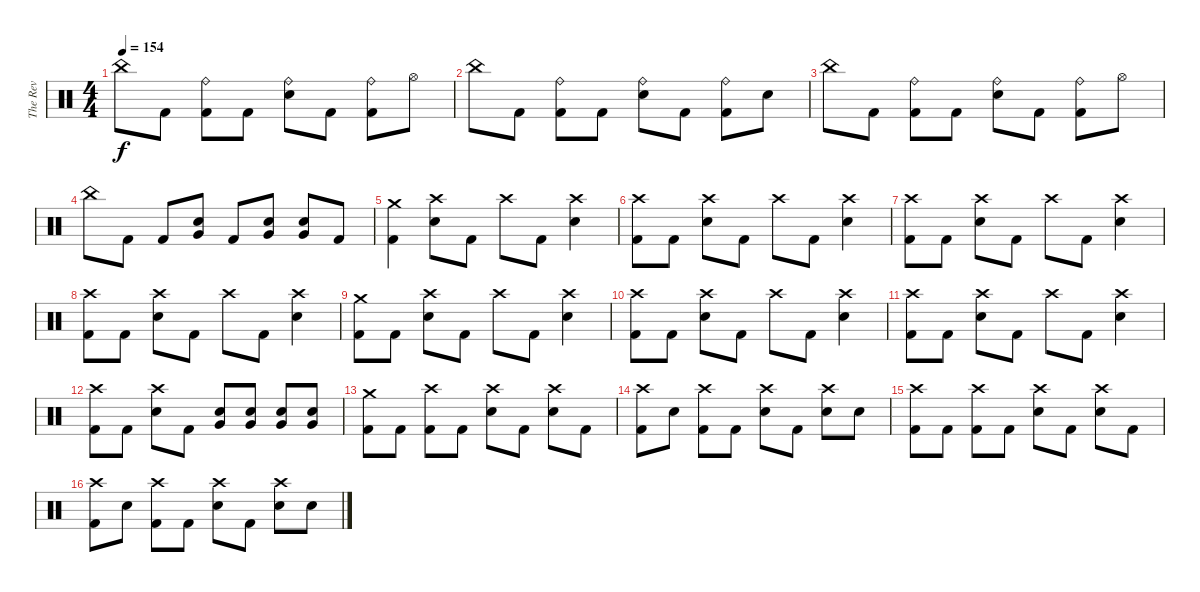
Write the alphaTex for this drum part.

\track ("The Rev" "The Rev") {instrument percussion}
\staff {score}
\articulation defaults
\ts (4 4)
\tempo 154
\clef neutral
\ks c "China (hit)".8{dy f} "Kick (hit) 2".8
("Ride (bell)" "Kick (hit) 2").8 "Kick (hit) 2".8 ("Ride (bell)" "Snare (hit) 2").8 "Kick (hit) 2".8 ("Ride (bell)" "Kick (hit) 2").8 "Hi-Hat (open)".8 |
"China (hit)".8 "Kick (hit) 2".8 ("Ride (bell)" "Kick (hit) 2").8 "Kick (hit) 2".8 ("Ride (bell)" "Snare (hit) 2").8 "Kick (hit) 2".8 ("Ride (bell)" "Kick (hit) 2").8 "Snare (hit) 2".8 |
"China (hit)".8 "Kick (hit) 2".8 ("Ride (bell)" "Kick (hit) 2").8 "Kick (hit) 2".8 ("Ride (bell)" "Snare (hit) 2").8 "Kick (hit) 2".8 ("Ride (bell)" "Kick (hit) 2").8 "Hi-Hat (open)".8 |
"China (hit)".8 "Kick (hit) 2".8 "Kick (hit) 2".8 ("Snare (hit) 2" "Very Low Tom (hit)").8 "Kick (hit) 2".8 ("Snare (hit) 2" "Very Low Tom (hit)").8 ("Snare (hit) 2" "Very Low Tom (hit)").8 "Kick (hit) 2".8 |
("Crash medium (hit)" "Kick (hit) 2").4 ("Crash high (hit)" "Snare (hit) 2").8 "Kick (hit) 2".8 "Crash high (hit)".8 "Kick (hit) 2".8 ("Crash high (hit)" "Snare (hit) 2").4 |
("Crash high (hit)" "Kick (hit) 2").8 "Kick (hit) 2".8 ("Crash high (hit)" "Snare (hit) 2").8 "Kick (hit) 2".8 "Crash high (hit)".8 "Kick (hit) 2".8 ("Crash high (hit)" "Snare (hit) 2").4 |
("Crash high (hit)" "Kick (hit) 2").8 "Kick (hit) 2".8 ("Crash high (hit)" "Snare (hit) 2").8 "Kick (hit) 2".8 "Crash high (hit)".8 "Kick (hit) 2".8 ("Crash high (hit)" "Snare (hit) 2").4 |
("Crash high (hit)" "Kick (hit) 2").8 "Kick (hit) 2".8 ("Crash high (hit)" "Snare (hit) 2").8 "Kick (hit) 2".8 "Crash high (hit)".8 "Kick (hit) 2".8 ("Crash high (hit)" "Snare (hit) 2").4 |
("Crash medium (hit)" "Kick (hit) 2").8 "Kick (hit) 2".8 ("Crash high (hit)" "Snare (hit) 2").8 "Kick (hit) 2".8 "Crash high (hit)".8 "Kick (hit) 2".8 ("Crash high (hit)" "Snare (hit) 2").4 |
("Crash high (hit)" "Kick (hit) 2").8 "Kick (hit) 2".8 ("Crash high (hit)" "Snare (hit) 2").8 "Kick (hit) 2".8 "Crash high (hit)".8 "Kick (hit) 2".8 ("Crash high (hit)" "Snare (hit) 2").4 |
("Crash high (hit)" "Kick (hit) 2").8 "Kick (hit) 2".8 ("Crash high (hit)" "Snare (hit) 2").8 "Kick (hit) 2".8 "Crash high (hit)".8 "Kick (hit) 2".8 ("Crash high (hit)" "Snare (hit) 2").4 |
("Crash high (hit)" "Kick (hit) 2").8 "Kick (hit) 2".8 ("Crash high (hit)" "Snare (hit) 2").8 "Kick (hit) 2".8 ("Snare (hit) 2" "Very Low Tom (hit)").8 ("Snare (hit) 2" "Very Low Tom (hit)").8 ("Snare (hit) 2" "Very Low Tom (hit)").8 ("Snare (hit) 2" "Very Low Tom (hit)").8 |
("Crash medium (hit)" "Kick (hit) 2").8 "Kick (hit) 2".8 ("Crash high (hit)" "Kick (hit) 2").8 "Kick (hit) 2".8 ("Crash high (hit)" "Snare (hit) 2").8 "Kick (hit) 2".8 ("Crash high (hit)" "Snare (hit) 2").8 "Kick (hit) 2".8 |
("Crash high (hit)" "Kick (hit) 2").8 "Snare (hit) 2".8 ("Crash high (hit)" "Kick (hit) 2").8 "Kick (hit) 2".8 ("Crash high (hit)" "Snare (hit) 2").8 "Kick (hit) 2".8 ("Crash high (hit)" "Snare (hit) 2").8 "Snare (hit) 2".8 |
("Crash high (hit)" "Kick (hit) 2").8 "Kick (hit) 2".8 ("Crash high (hit)" "Kick (hit) 2").8 "Kick (hit) 2".8 ("Crash high (hit)" "Snare (hit) 2").8 "Kick (hit) 2".8 ("Crash high (hit)" "Snare (hit) 2").8 "Kick (hit) 2".8 |
("Crash high (hit)" "Kick (hit) 2").8 "Snare (hit) 2".8 ("Crash high (hit)" "Kick (hit) 2").8 "Kick (hit) 2".8 ("Crash high (hit)" "Snare (hit) 2").8 "Kick (hit) 2".8 ("Crash high (hit)" "Snare (hit) 2").8 "Snare (hit) 2".8
